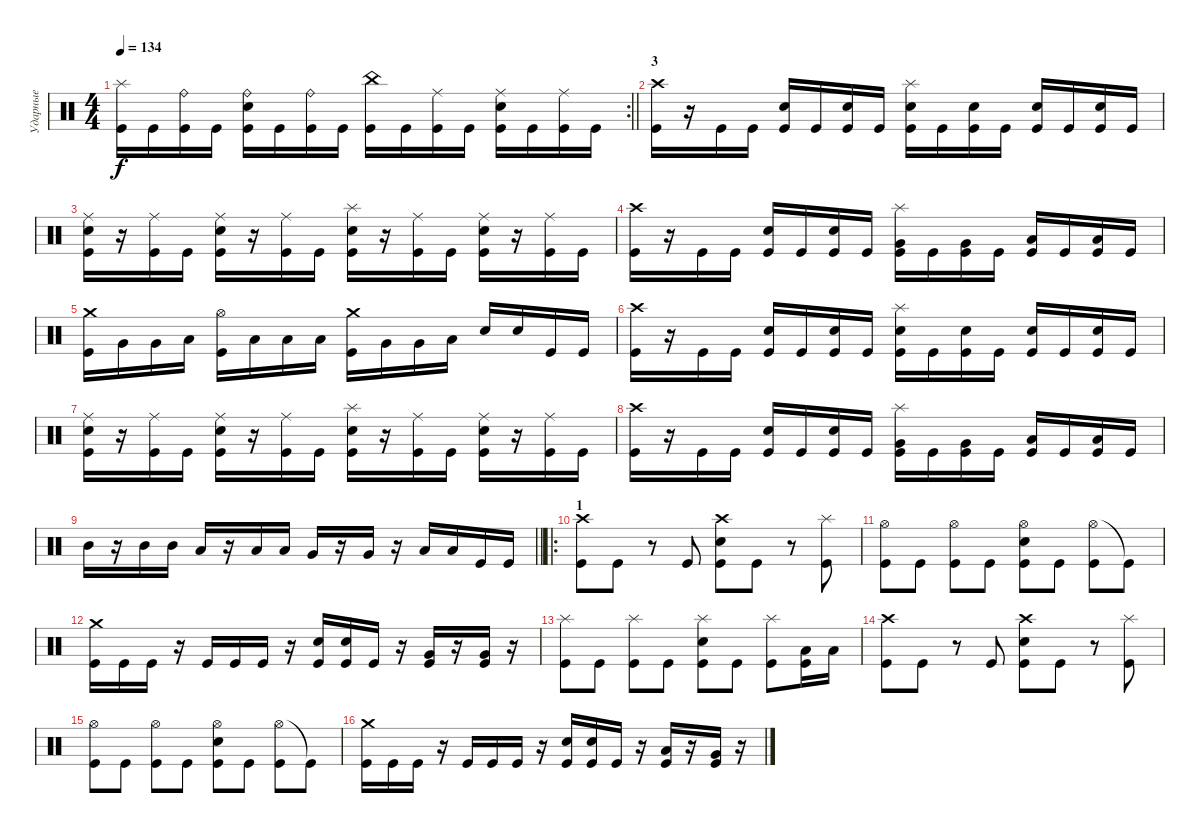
\track ("Ударные" "Ударные") {instrument percussion}
\staff {score}
\articulation defaults
\rc 2
\ts (4 4)
\tempo 134
\clef neutral
\barLineRight lightlight
\ks c
("Splash (hit)" "Kick (hit)").16{dy f} "Kick (hit)".16 ("Ride (bell)" "Kick (hit)").16 "Kick (hit)".16 ("Ride (bell)" "Electric Snare (hit)" "Kick (hit)").16 "Kick (hit)".16 ("Ride (bell)" "Kick (hit)").16 "Kick (hit)".16 ("China (hit)" "Kick (hit)").16 "Kick (hit)".16 ("Ride (middle)" "Kick (hit)").16 "Kick (hit)".16 ("Ride (middle)" "Electric Snare (hit)" "Kick (hit)").16 "Kick (hit)".16 ("Ride (middle)" "Kick (hit)").16 "Kick (hit)".16 |
\section ("" "3")
("Crash high (hit)" "Kick (hit)").16 r.16 "Kick (hit)".16 "Kick (hit)".16 ("Electric Snare (hit)" "Kick (hit)").16 "Kick (hit)".16 ("Electric Snare (hit)" "Kick (hit)").16 "Kick (hit)".16 ("Splash (hit)" "Electric Snare (hit)" "Kick (hit)").16 "Kick (hit)".16 ("Electric Snare (hit)" "Kick (hit)").16 "Kick (hit)".16 ("Electric Snare (hit)" "Kick (hit)").16 "Kick (hit)".16 ("Electric Snare (hit)" "Kick (hit)").16 "Kick (hit)".16 |
("Ride (middle)" "Electric Snare (hit)" "Kick (hit)").16 r.16 ("Ride (middle)" "Kick (hit)").16 "Kick (hit)".16 ("Ride (middle)" "Electric Snare (hit)" "Kick (hit)").16 r.16 ("Ride (middle)" "Kick (hit)").16 "Kick (hit)".16 ("Splash (hit)" "Electric Snare (hit)" "Kick (hit)").16 r.16 ("Ride (middle)" "Kick (hit)").16 "Kick (hit)".16 ("Ride (middle)" "Electric Snare (hit)" "Kick (hit)").16 r.16 ("Ride (middle)" "Kick (hit)").16 "Kick (hit)".16 |
("Crash high (hit)" "Kick (hit)").16 r.16 "Kick (hit)".16 "Kick (hit)".16 ("Electric Snare (hit)" "Kick (hit)").16 "Kick (hit)".16 ("Electric Snare (hit)" "Kick (hit)").16 "Kick (hit)".16 ("Splash (hit)" "Very Low Tom (hit)" "Kick (hit)").16 "Kick (hit)".16 ("Very Low Tom (hit)" "Kick (hit)").16 "Kick (hit)".16 ("Low Tom (hit)" "Kick (hit)").16 "Kick (hit)".16 ("Low Tom (hit)" "Kick (hit)").16 "Kick (hit)".16 |
("Crash medium (hit)" "Kick (hit)").16 "Very Low Tom (hit)".16 "Very Low Tom (hit)".16 "Low Floor Tom (hit)".16 ("Hi-Hat (open)" "Kick (hit)").16 "Low Tom (hit)".16 "Low Tom (hit)".16 "Low Tom (hit)".16 ("Crash medium (hit)" "Kick (hit)").16 "Very Low Tom (hit)".16 "Very Low Tom (hit)".16 "Low Floor Tom (hit)".16 "Electric Snare (hit)".16 "Electric Snare (hit)".16 "Kick (hit)".16 "Kick (hit)".16 |
("Crash high (hit)" "Kick (hit)").16 r.16 "Kick (hit)".16 "Kick (hit)".16 ("Electric Snare (hit)" "Kick (hit)").16 "Kick (hit)".16 ("Electric Snare (hit)" "Kick (hit)").16 "Kick (hit)".16 ("Splash (hit)" "Electric Snare (hit)" "Kick (hit)").16 "Kick (hit)".16 ("Electric Snare (hit)" "Kick (hit)").16 "Kick (hit)".16 ("Electric Snare (hit)" "Kick (hit)").16 "Kick (hit)".16 ("Electric Snare (hit)" "Kick (hit)").16 "Kick (hit)".16 |
("Ride (middle)" "Electric Snare (hit)" "Kick (hit)").16 r.16 ("Ride (middle)" "Kick (hit)").16 "Kick (hit)".16 ("Ride (middle)" "Electric Snare (hit)" "Kick (hit)").16 r.16 ("Ride (middle)" "Kick (hit)").16 "Kick (hit)".16 ("Splash (hit)" "Electric Snare (hit)" "Kick (hit)").16 r.16 ("Ride (middle)" "Kick (hit)").16 "Kick (hit)".16 ("Ride (middle)" "Electric Snare (hit)" "Kick (hit)").16 r.16 ("Ride (middle)" "Kick (hit)").16 "Kick (hit)".16 |
("Crash high (hit)" "Kick (hit)").16 r.16 "Kick (hit)".16 "Kick (hit)".16 ("Electric Snare (hit)" "Kick (hit)").16 "Kick (hit)".16 ("Electric Snare (hit)" "Kick (hit)").16 "Kick (hit)".16 ("Splash (hit)" "Very Low Tom (hit)" "Kick (hit)").16 "Kick (hit)".16 ("Very Low Tom (hit)" "Kick (hit)").16 "Kick (hit)".16 ("Low Tom (hit)" "Kick (hit)").16 "Kick (hit)".16 ("Low Tom (hit)" "Kick (hit)").16 "Kick (hit)".16 |
\barLineRight lightlight "Mid Tom (hit)".16
r.16 "Mid Tom (hit)".16 "Mid Tom (hit)".16 "Low Tom (hit)".16 r.16 "Low Tom (hit)".16 "Low Tom (hit)".16 "Very Low Tom (hit)".16 r.16 "Very Low Tom (hit)".16 r.16 "Low Floor Tom (hit)".16 "Low Floor Tom (hit)".16 "Kick (hit)".16 "Kick (hit)".16 |
\ro
\section ("" "1")
("Crash high (hit)" "Kick (hit)").8 "Kick (hit)".8 r.8 "Kick (hit)".8 ("Crash high (hit)" "Electric Snare (hit)" "Kick (hit)").8 "Kick (hit)".8 r.8 ("Splash (hit)" "Kick (hit)").8 |
("Hi-Hat (open)" "Kick (hit)").8 "Kick (hit)".8 ("Hi-Hat (open)" "Kick (hit)").8 "Kick (hit)".8 ("Hi-Hat (open)" "Electric Snare (hit)" "Kick (hit)").8 "Kick (hit)".8 ("Hi-Hat (open)" "Kick (hit)").8 "Kick (hit)"{t}.8 |
("Crash medium (hit)" "Kick (hit)").16 "Kick (hit)".16 "Kick (hit)".16 r.16 "Kick (hit)".16 "Kick (hit)".16 "Kick (hit)".16 r.16 ("Electric Snare (hit)" "Kick (hit)").16 ("Electric Snare (hit)" "Kick (hit)").16 "Kick (hit)".16 r.16 ("Very Low Tom (hit)" "Kick (hit)").16 r.16 ("Very Low Tom (hit)" "Kick (hit)").16 r.16 |
("Splash (hit)" "Kick (hit)").8 "Kick (hit)".8 ("Splash (hit)" "Kick (hit)").8 "Kick (hit)".8 ("Splash (hit)" "Electric Snare (hit)" "Kick (hit)").8 "Kick (hit)".8 ("Splash (hit)" "Kick (hit)").8 ("Low Tom (hit)" "Kick (hit)").16 "Low Tom (hit)".16 |
("Crash high (hit)" "Kick (hit)").8 "Kick (hit)".8 r.8 "Kick (hit)".8 ("Crash high (hit)" "Electric Snare (hit)" "Kick (hit)").8 "Kick (hit)".8 r.8 ("Splash (hit)" "Kick (hit)").8 |
("Hi-Hat (open)" "Kick (hit)").8 "Kick (hit)".8 ("Hi-Hat (open)" "Kick (hit)").8 "Kick (hit)".8 ("Hi-Hat (open)" "Electric Snare (hit)" "Kick (hit)").8 "Kick (hit)".8 ("Hi-Hat (open)" "Kick (hit)").8 "Kick (hit)"{t}.8 |
("Crash medium (hit)" "Kick (hit)").16 "Kick (hit)".16 "Kick (hit)".16 r.16 "Kick (hit)".16 "Kick (hit)".16 "Kick (hit)".16 r.16 ("Electric Snare (hit)" "Kick (hit)").16 ("Electric Snare (hit)" "Kick (hit)").16 "Kick (hit)".16 r.16 ("Low Tom (hit)" "Kick (hit)").16 r.16 ("Very Low Tom (hit)" "Kick (hit)").16 r.16
